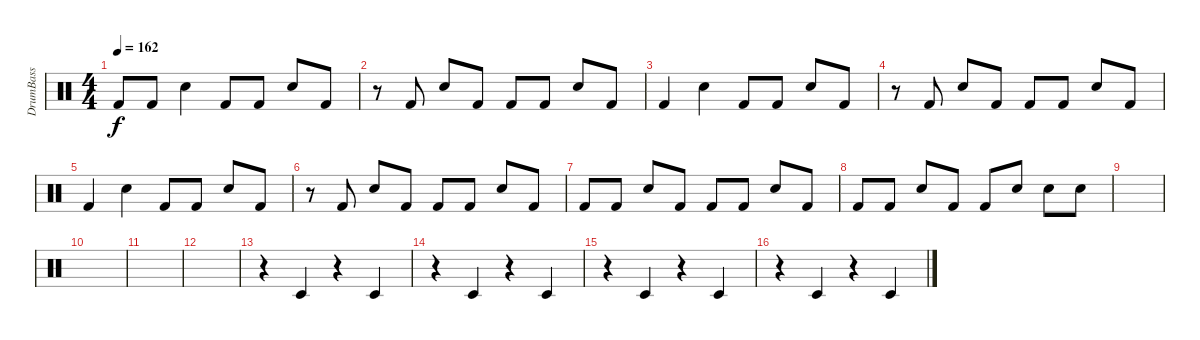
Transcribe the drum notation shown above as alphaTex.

\track ("DrumBass" "DrumBass") {instrument percussion}
\staff {score}
\articulation defaults
\ts (4 4)
\tempo 162
\clef neutral
\ks c "Kick (hit) 2".8{dy f} "Kick (hit) 2".8 "Snare (hit) 2".4 "Kick (hit) 2".8 "Kick (hit) 2".8 "Snare (hit) 2".8 "Kick (hit) 2".8
|
r.8 "Kick (hit) 2".8 "Snare (hit) 2".8 "Kick (hit) 2".8 "Kick (hit) 2".8 "Kick (hit) 2".8 "Snare (hit) 2".8 "Kick (hit) 2".8 |
"Kick (hit) 2".4 "Snare (hit) 2".4 "Kick (hit) 2".8 "Kick (hit) 2".8 "Snare (hit) 2".8 "Kick (hit) 2".8 |
r.8 "Kick (hit) 2".8 "Snare (hit) 2".8 "Kick (hit) 2".8 "Kick (hit) 2".8 "Kick (hit) 2".8 "Snare (hit) 2".8 "Kick (hit) 2".8 |
"Kick (hit) 2".4 "Snare (hit) 2".4 "Kick (hit) 2".8 "Kick (hit) 2".8 "Snare (hit) 2".8 "Kick (hit) 2".8 |
r.8 "Kick (hit) 2".8 "Snare (hit) 2".8 "Kick (hit) 2".8 "Kick (hit) 2".8 "Kick (hit) 2".8 "Snare (hit) 2".8 "Kick (hit) 2".8 |
"Kick (hit) 2".8 "Kick (hit) 2".8 "Snare (hit) 2".8 "Kick (hit) 2".8 "Kick (hit) 2".8 "Kick (hit) 2".8 "Snare (hit) 2".8 "Kick (hit) 2".8 |
"Kick (hit) 2".8 "Kick (hit) 2".8 "Snare (hit) 2".8 "Kick (hit) 2".8 "Kick (hit) 2".8 "Snare (hit) 2"{tr (38 16)}.8 "Snare (hit) 2"{tr (38 16)}.8 "Snare (hit) 2"{tr (38 16)}.8 |
|
|
|
|
r.4 "Timbale low (hit)".4{volume 3} r.4 "Timbale low (hit)".4{volume 5} |
r.4 "Timbale low (hit)".4{volume 8} r.4 "Timbale low (hit)".4{volume 9} |
r.4 "Timbale low (hit)".4{volume 12} r.4 "Timbale low (hit)".4{volume 14} |
r.4 "Timbale low (hit)".4 r.4 "Timbale low (hit)".4
